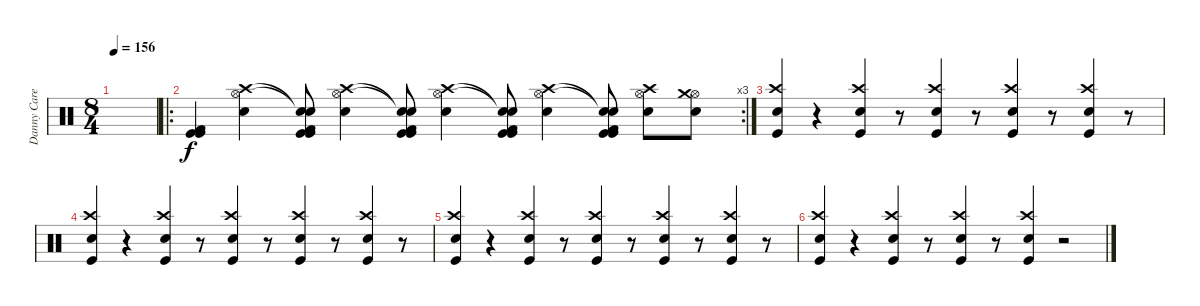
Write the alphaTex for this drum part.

\track ("Danny Carey " "Danny Care") {instrument percussion}
\staff {score}
\articulation defaults
\ts (8 4)
\tempo 156
\clef neutral
\ks c
|
\ro
\rc 3
("Kick (hit)" "Kick (hit) 2" "Kick (hit)").4 ("Hi-Hat (open)" "Crash high (hit)" "Snare (hit) 2").4 ("Snare (hit)"{t} "Snare (hit)"{t} "Kick (hit)" "Kick (hit) 2" "Kick (hit)").8 ("Hi-Hat (open)" "Crash high (hit)" "Snare (hit) 2").4 ("Snare (hit)"{t} "Snare (hit)"{t} "Kick (hit)" "Kick (hit) 2" "Kick (hit)").8 ("Hi-Hat (open)" "Crash high (hit)" "Snare (hit) 2").4 ("Snare (hit)"{t} "Snare (hit)"{t} "Kick (hit)" "Kick (hit) 2" "Kick (hit)").8 ("Hi-Hat (open)" "Crash high (hit)" "Snare (hit) 2").4 ("Snare (hit)"{t} "Snare (hit)"{t} "Kick (hit)" "Kick (hit) 2" "Kick (hit)").8 ("Hi-Hat (open)" "Crash high (hit)" "Snare (hit) 2").8 ("Hi-Hat (open)" "Crash medium (hit)" "Snare (hit) 2").8 |
("Crash high (hit)" "Snare (hit) 2" "Kick (hit)").4 r.4 ("Snare (hit) 2" "Crash high (hit)" "Kick (hit)").4 r.8 ("Snare (hit) 2" "Crash high (hit)" "Kick (hit)").4 r.8 ("Snare (hit) 2" "Crash high (hit)" "Kick (hit)").4 r.8 ("Snare (hit) 2" "Crash high (hit)" "Kick (hit)").4 r.8 |
("Crash high (hit)" "Snare (hit) 2" "Kick (hit)").4 r.4 ("Snare (hit) 2" "Crash high (hit)" "Kick (hit)").4 r.8 ("Snare (hit) 2" "Crash high (hit)" "Kick (hit)").4 r.8 ("Snare (hit) 2" "Crash high (hit)" "Kick (hit)").4 r.8 ("Snare (hit) 2" "Crash high (hit)" "Kick (hit)").4 r.8 |
("Crash high (hit)" "Snare (hit) 2" "Kick (hit)").4 r.4 ("Snare (hit) 2" "Crash high (hit)" "Kick (hit)").4 r.8 ("Snare (hit) 2" "Crash high (hit)" "Kick (hit)").4 r.8 ("Snare (hit) 2" "Crash high (hit)" "Kick (hit)").4 r.8 ("Snare (hit) 2" "Crash high (hit)" "Kick (hit)").4 r.8 |
("Crash high (hit)" "Snare (hit) 2" "Kick (hit)").4 r.4 ("Snare (hit) 2" "Crash high (hit)" "Kick (hit)").4 r.8 ("Snare (hit) 2" "Crash high (hit)" "Kick (hit)").4 r.8 ("Snare (hit) 2" "Crash high (hit)" "Kick (hit)").4 r.2
